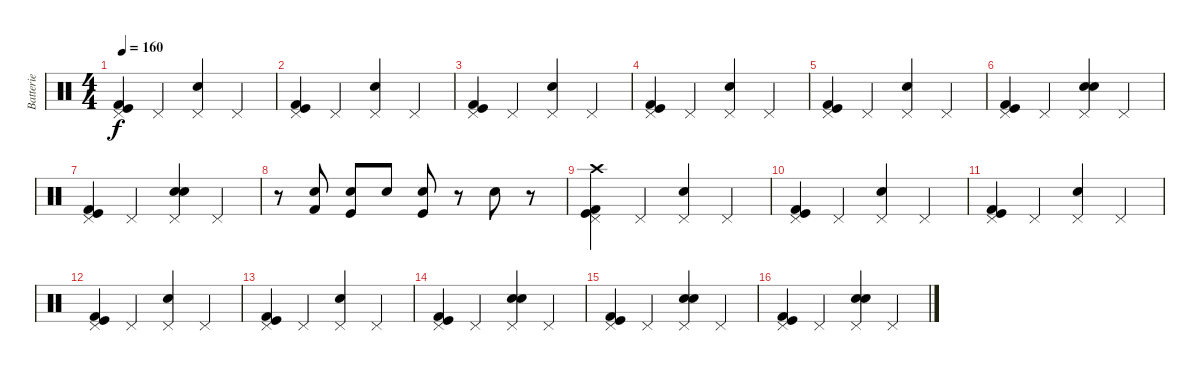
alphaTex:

\track ("Batterie" "Batterie") {instrument percussion}
\staff {score}
\articulation defaults
\ts (4 4)
\tempo 160
\clef neutral
\ks c
("Pedal Hi-Hat (hit)" "Kick (hit) 2" "Kick (hit)").4{dy f} "Pedal Hi-Hat (hit)".4 ("Pedal Hi-Hat (hit)" "Electric Snare (hit)").4 "Pedal Hi-Hat (hit)".4 |
("Pedal Hi-Hat (hit)" "Kick (hit) 2" "Kick (hit)").4 "Pedal Hi-Hat (hit)".4 ("Pedal Hi-Hat (hit)" "Electric Snare (hit)").4 "Pedal Hi-Hat (hit)".4 |
("Pedal Hi-Hat (hit)" "Kick (hit) 2" "Kick (hit)").4 "Pedal Hi-Hat (hit)".4 ("Pedal Hi-Hat (hit)" "Electric Snare (hit)").4 "Pedal Hi-Hat (hit)".4 |
("Pedal Hi-Hat (hit)" "Kick (hit) 2" "Kick (hit)").4 "Pedal Hi-Hat (hit)".4 ("Pedal Hi-Hat (hit)" "Electric Snare (hit)").4 "Pedal Hi-Hat (hit)".4 |
("Pedal Hi-Hat (hit)" "Kick (hit) 2" "Kick (hit)").4 "Pedal Hi-Hat (hit)".4 ("Pedal Hi-Hat (hit)" "Electric Snare (hit)").4 "Pedal Hi-Hat (hit)".4 |
("Pedal Hi-Hat (hit)" "Kick (hit) 2" "Kick (hit)").4 "Pedal Hi-Hat (hit)".4 ("Pedal Hi-Hat (hit)" "Electric Snare (hit)" "Snare (hit) 2").4 "Pedal Hi-Hat (hit)".4 |
("Pedal Hi-Hat (hit)" "Kick (hit) 2" "Kick (hit)").4 "Pedal Hi-Hat (hit)".4 ("Pedal Hi-Hat (hit)" "Electric Snare (hit)" "Snare (hit) 2").4 "Pedal Hi-Hat (hit)".4 |
r.8 ("Electric Snare (hit)" "Kick (hit) 2").8 ("Electric Snare (hit)" "Kick (hit)").8 "Snare (hit) 2".8 ("Snare (hit) 2" "Kick (hit)").8 r.8 "Electric Snare (hit)".8 r.8 |
("Pedal Hi-Hat (hit)" "Crash high (hit)" "Kick (hit) 2" "Kick (hit)").4 "Pedal Hi-Hat (hit)".4 ("Pedal Hi-Hat (hit)" "Electric Snare (hit)").4 "Pedal Hi-Hat (hit)".4 |
("Pedal Hi-Hat (hit)" "Kick (hit) 2" "Kick (hit)").4 "Pedal Hi-Hat (hit)".4 ("Pedal Hi-Hat (hit)" "Electric Snare (hit)").4 "Pedal Hi-Hat (hit)".4 |
("Pedal Hi-Hat (hit)" "Kick (hit) 2" "Kick (hit)").4 "Pedal Hi-Hat (hit)".4 ("Pedal Hi-Hat (hit)" "Electric Snare (hit)").4 "Pedal Hi-Hat (hit)".4 |
("Pedal Hi-Hat (hit)" "Kick (hit) 2" "Kick (hit)").4 "Pedal Hi-Hat (hit)".4 ("Pedal Hi-Hat (hit)" "Electric Snare (hit)").4 "Pedal Hi-Hat (hit)".4 |
("Pedal Hi-Hat (hit)" "Kick (hit) 2" "Kick (hit)").4 "Pedal Hi-Hat (hit)".4 ("Pedal Hi-Hat (hit)" "Electric Snare (hit)").4 "Pedal Hi-Hat (hit)".4 |
("Pedal Hi-Hat (hit)" "Kick (hit) 2" "Kick (hit)").4 "Pedal Hi-Hat (hit)".4 ("Pedal Hi-Hat (hit)" "Electric Snare (hit)" "Snare (hit) 2").4 "Pedal Hi-Hat (hit)".4 |
("Pedal Hi-Hat (hit)" "Kick (hit) 2" "Kick (hit)").4 "Pedal Hi-Hat (hit)".4 ("Pedal Hi-Hat (hit)" "Electric Snare (hit)" "Snare (hit) 2").4 "Pedal Hi-Hat (hit)".4 |
("Pedal Hi-Hat (hit)" "Kick (hit) 2" "Kick (hit)").4 "Pedal Hi-Hat (hit)".4 ("Pedal Hi-Hat (hit)" "Electric Snare (hit)" "Snare (hit) 2").4 "Pedal Hi-Hat (hit)".4
